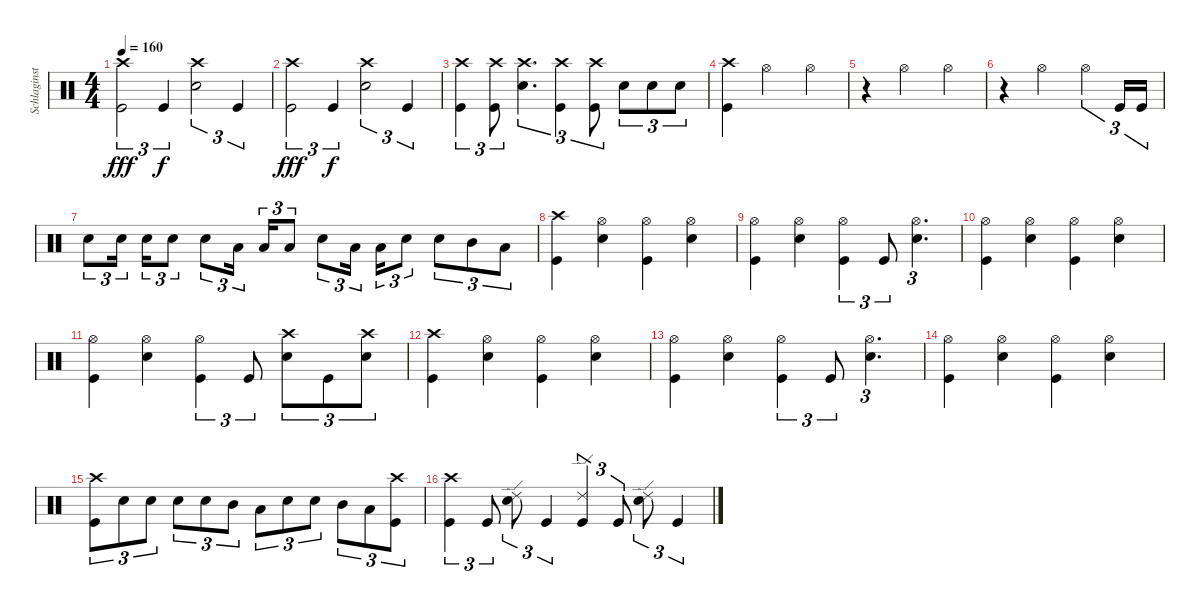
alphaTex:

\track ("Schlaginstrumente - Auswahl" "Schlaginst") {instrument percussion}
\staff {score}
\articulation defaults
\ts (4 4)
\tempo 160
\clef neutral
\ks c
("Crash high (hit)" "Kick (hit)").2{tu (3 2) dy fff} "Kick (hit)".4{tu (3 2) dy f} ("Crash high (hit)" "Electric Snare (hit)").2{tu (3 2)} "Kick (hit)".4{tu (3 2)} |
("Crash high (hit)" "Kick (hit)").2{tu (3 2) dy fff} "Kick (hit)".4{tu (3 2) dy f} ("Crash high (hit)" "Electric Snare (hit)").2{tu (3 2)} "Kick (hit)".4{tu (3 2)} |
("Crash high (hit)" "Kick (hit)").4{tu (3 2)} ("Crash high (hit)" "Kick (hit)").8{tu (3 2)} ("Crash high (hit)" "Electric Snare (hit)").4{d tu (3 2)} ("Crash high (hit)" "Kick (hit)").4{tu (3 2)} ("Crash high (hit)" "Kick (hit)").8{tu (3 2)} "Electric Snare (hit)".8{tu (3 2)} "Electric Snare (hit)".8{tu (3 2)} "Electric Snare (hit)".8{tu (3 2)} |
("Crash high (hit)" "Kick (hit)").4 "Hi-Hat (open)".2 "Hi-Hat (open)".4 |
r.4 "Hi-Hat (open)".2 "Hi-Hat (open)".4 |
r.4 "Hi-Hat (open)".2 "Hi-Hat (open)".4{tu (3 2)} "Kick (hit)".16{tu (3 2)} "Kick (hit)".16{tu (3 2)} |
"Electric Snare (hit)".8{tu (3 2)} "Electric Snare (hit)".16{tu (3 2)} "Electric Snare (hit)".16{tu (3 2)} "Electric Snare (hit)".8{tu (3 2)} "Electric Snare (hit)".8{tu (3 2)} "Low Tom (hit)".16{tu (3 2)} "Low Tom (hit)".16{tu (3 2)} "Low Tom (hit)".8{tu (3 2)} "Electric Snare (hit)".8{tu (3 2)} "Low Tom (hit)".16{tu (3 2)} "Low Tom (hit)".16{tu (3 2)} "Electric Snare (hit)".8{tu (3 2)} "Electric Snare (hit)".8{tu (3 2)} "Mid Tom (hit)".8{tu (3 2)} "Low Tom (hit)".8{tu (3 2)} |
("Crash high (hit)" "Kick (hit)").4 ("Hi-Hat (open)" "Electric Snare (hit)").4 ("Hi-Hat (open)" "Kick (hit)").4 ("Hi-Hat (open)" "Electric Snare (hit)").4 |
("Hi-Hat (open)" "Kick (hit)").4 ("Hi-Hat (open)" "Electric Snare (hit)").4 ("Hi-Hat (open)" "Kick (hit)").4{tu (3 2)} "Kick (hit)".8{tu (3 2)} ("Hi-Hat (open)" "Electric Snare (hit)").4{d tu (3 2)} |
("Hi-Hat (open)" "Kick (hit)").4 ("Hi-Hat (open)" "Electric Snare (hit)").4 ("Hi-Hat (open)" "Kick (hit)").4 ("Hi-Hat (open)" "Electric Snare (hit)").4 |
("Hi-Hat (open)" "Kick (hit)").4 ("Hi-Hat (open)" "Electric Snare (hit)").4 ("Hi-Hat (open)" "Kick (hit)").4{tu (3 2)} "Kick (hit)".8{tu (3 2)} ("Crash high (hit)" "Electric Snare (hit)").8{tu (3 2)} "Kick (hit)".8{tu (3 2)} ("Crash high (hit)" "Electric Snare (hit)").8{tu (3 2)} |
("Crash high (hit)" "Kick (hit)").4 ("Hi-Hat (open)" "Electric Snare (hit)").4 ("Hi-Hat (open)" "Kick (hit)").4 ("Hi-Hat (open)" "Electric Snare (hit)").4 |
("Hi-Hat (open)" "Kick (hit)").4 ("Hi-Hat (open)" "Electric Snare (hit)").4 ("Hi-Hat (open)" "Kick (hit)").4{tu (3 2)} "Kick (hit)".8{tu (3 2)} ("Hi-Hat (open)" "Electric Snare (hit)").4{d tu (3 2)} |
("Hi-Hat (open)" "Kick (hit)").4 ("Hi-Hat (open)" "Electric Snare (hit)").4 ("Hi-Hat (open)" "Kick (hit)").4 ("Hi-Hat (open)" "Electric Snare (hit)").4 |
("Crash high (hit)" "Kick (hit)").8{tu (3 2)} "Electric Snare (hit)".8{tu (3 2)} "Electric Snare (hit)".8{tu (3 2)} "Electric Snare (hit)".8{tu (3 2)} "Electric Snare (hit)".8{tu (3 2)} "Mid Tom (hit)".8{tu (3 2)} "Low Tom (hit)".8{tu (3 2)} "Electric Snare (hit)".8{tu (3 2)} "Electric Snare (hit)".8{tu (3 2)} "Mid Tom (hit)".8{tu (3 2)} "Low Tom (hit)".8{tu (3 2)} ("Crash high (hit)" "Kick (hit)").8{tu (3 2)} |
("Crash high (hit)" "Kick (hit)").4{tu (3 2)} "Kick (hit)".8{tu (3 2)} ("Ride (edge) 2" "Electric Snare (hit)").8{tu (3 2)} "Kick (hit)".4{tu (3 2)} ("Ride (edge) 2" "Kick (hit)").4{tu (3 2)} "Kick (hit)".8{tu (3 2)} ("Ride (edge) 2" "Electric Snare (hit)").8{tu (3 2)} "Kick (hit)".4{tu (3 2)}
